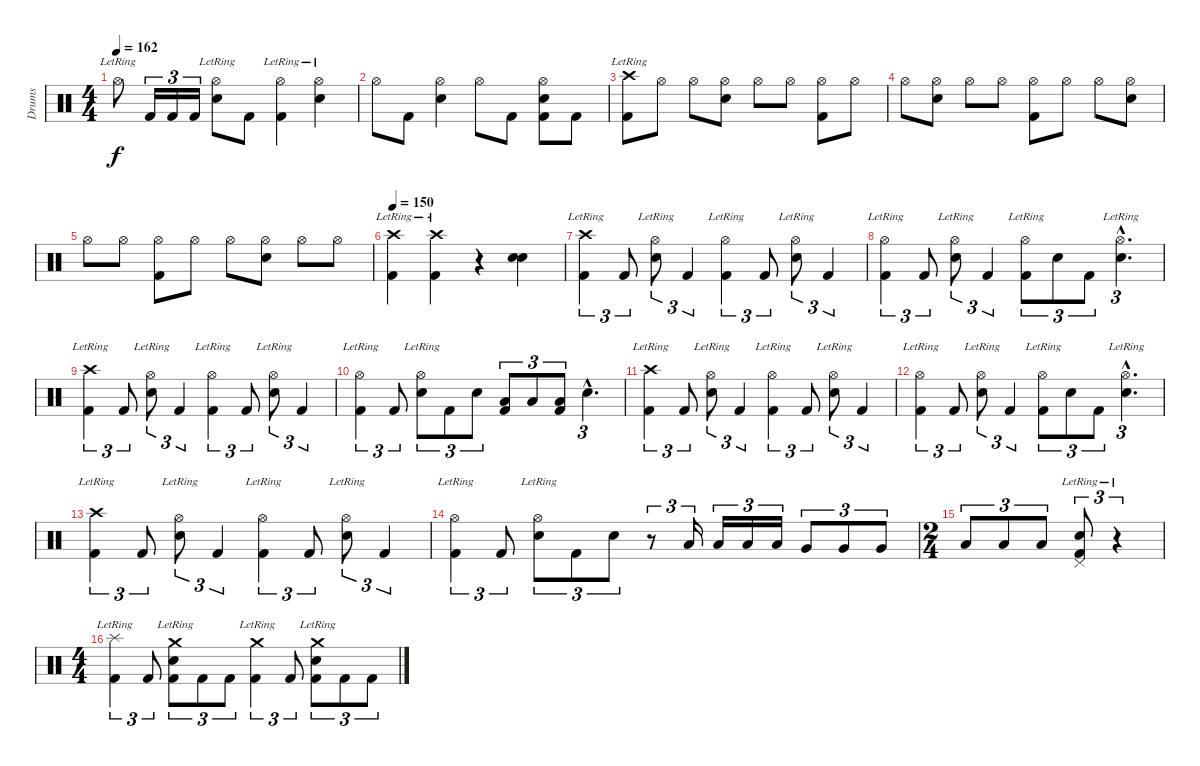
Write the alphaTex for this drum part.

\track ("Drums" "Drums") {instrument percussion}
\staff {score}
\articulation defaults
\ts (4 4)
\tempo 162
\clef neutral
\ks c "Hi-Hat (open)"{lr}.8{dy f} "Kick (hit) 2".16{tu (3 2)} "Kick (hit) 2".16{tu (3 2)} "Kick (hit) 2".16{tu (3 2)}
("Hi-Hat (open)"{lr} "Snare (hit) 2").8 "Kick (hit) 2".8 ("Hi-Hat (open)"{lr} "Kick (hit) 2").4 ("Hi-Hat (open)"{lr} "Snare (hit) 2").4 |
"Hi-Hat (open)".8 "Kick (hit) 2".8 ("Hi-Hat (open)" "Snare (hit) 2").4 "Hi-Hat (open)".8 "Kick (hit) 2".8 ("Hi-Hat (open)" "Snare (hit) 2" "Kick (hit) 2").8 "Kick (hit) 2".8 |
("Crash high (hit)"{lr} "Kick (hit) 2").8 "Hi-Hat (open)".8 "Hi-Hat (open)".8 ("Hi-Hat (open)" "Snare (hit) 2").8 "Hi-Hat (open)".8 "Hi-Hat (open)".8 ("Hi-Hat (open)" "Kick (hit) 2").8 "Hi-Hat (open)".8 |
"Hi-Hat (open)".8 ("Hi-Hat (open)" "Snare (hit) 2").8 "Hi-Hat (open)".8 "Hi-Hat (open)".8 ("Hi-Hat (open)" "Kick (hit) 2").8 "Hi-Hat (open)".8 "Hi-Hat (open)".8 ("Hi-Hat (open)" "Snare (hit) 2").8 |
"Hi-Hat (open)".8 "Hi-Hat (open)".8 ("Hi-Hat (open)" "Kick (hit) 2").8 "Hi-Hat (open)".8 "Hi-Hat (open)".8 ("Hi-Hat (open)" "Snare (hit) 2").8 "Hi-Hat (open)".8 "Hi-Hat (open)".8 |
\tempo 150
("Crash high (hit)"{lr} "Kick (hit) 2").4 ("Crash high (hit)"{lr} "Kick (hit) 2").4 r.4 ("Snare (hit) 2" "Snare (hit) 2").4 |
("Crash high (hit)"{lr} "Kick (hit) 2").4{tu (3 2)} "Kick (hit) 2".8{tu (3 2)} ("Hi-Hat (open)"{lr} "Snare (hit) 2").8{tu (3 2)} "Kick (hit) 2".4{tu (3 2)} ("Hi-Hat (open)"{lr} "Kick (hit) 2").4{tu (3 2)} "Kick (hit) 2".8{tu (3 2)} ("Hi-Hat (open)"{lr} "Snare (hit) 2").8{tu (3 2)} "Kick (hit) 2".4{tu (3 2)} |
("Hi-Hat (open)"{lr} "Kick (hit) 2").4{tu (3 2)} "Kick (hit) 2".8{tu (3 2)} ("Hi-Hat (open)"{lr} "Snare (hit) 2").8{tu (3 2)} "Kick (hit) 2".4{tu (3 2)} ("Hi-Hat (open)"{lr} "Kick (hit) 2").8{tu (3 2)} "Snare (hit) 2".8{tu (3 2)} "Kick (hit) 2".8{tu (3 2)} ("Hi-Hat (open)"{hac lr} "Snare (hit) 2"{hac}).4{d tu (3 2)} |
("Crash high (hit)"{lr} "Kick (hit) 2").4{tu (3 2)} "Kick (hit) 2".8{tu (3 2)} ("Hi-Hat (open)"{lr} "Snare (hit) 2").8{tu (3 2)} "Kick (hit) 2".4{tu (3 2)} ("Hi-Hat (open)"{lr} "Kick (hit) 2").4{tu (3 2)} "Kick (hit) 2".8{tu (3 2)} ("Hi-Hat (open)"{lr} "Snare (hit) 2").8{tu (3 2)} "Kick (hit) 2".4{tu (3 2)} |
("Hi-Hat (open)"{lr} "Kick (hit) 2").4{tu (3 2)} "Kick (hit) 2".8{tu (3 2)} ("Hi-Hat (open)"{lr} "Snare (hit) 2").8{tu (3 2)} "Kick (hit) 2".8{tu (3 2)} "Snare (hit) 2".8{tu (3 2)} ("Low Tom (hit)" "Kick (hit) 2").8{tu (3 2)} "Low Tom (hit)".8{tu (3 2)} ("Low Tom (hit)" "Kick (hit) 2").8{tu (3 2)} "Snare (hit) 2"{hac}.4{d tu (3 2)} |
("Crash high (hit)"{lr} "Kick (hit) 2").4{tu (3 2)} "Kick (hit) 2".8{tu (3 2)} ("Hi-Hat (open)"{lr} "Snare (hit) 2").8{tu (3 2)} "Kick (hit) 2".4{tu (3 2)} ("Hi-Hat (open)"{lr} "Kick (hit) 2").4{tu (3 2)} "Kick (hit) 2".8{tu (3 2)} ("Hi-Hat (open)"{lr} "Snare (hit) 2").8{tu (3 2)} "Kick (hit) 2".4{tu (3 2)} |
("Hi-Hat (open)"{lr} "Kick (hit) 2").4{tu (3 2)} "Kick (hit) 2".8{tu (3 2)} ("Hi-Hat (open)"{lr} "Snare (hit) 2").8{tu (3 2)} "Kick (hit) 2".4{tu (3 2)} ("Hi-Hat (open)"{lr} "Kick (hit) 2").8{tu (3 2)} "Snare (hit) 2".8{tu (3 2)} "Kick (hit) 2".8{tu (3 2)} ("Hi-Hat (open)"{hac lr} "Snare (hit) 2"{hac}).4{d tu (3 2)} |
("Crash high (hit)"{lr} "Kick (hit) 2").4{tu (3 2)} "Kick (hit) 2".8{tu (3 2)} ("Hi-Hat (open)"{lr} "Snare (hit) 2").8{tu (3 2)} "Kick (hit) 2".4{tu (3 2)} ("Hi-Hat (open)"{lr} "Kick (hit) 2").4{tu (3 2)} "Kick (hit) 2".8{tu (3 2)} ("Hi-Hat (open)"{lr} "Snare (hit) 2").8{tu (3 2)} "Kick (hit) 2".4{tu (3 2)} |
("Hi-Hat (open)"{lr} "Kick (hit) 2").4{tu (3 2)} "Kick (hit) 2".8{tu (3 2)} ("Hi-Hat (open)"{lr} "Snare (hit) 2").8{tu (3 2)} "Kick (hit) 2".8{tu (3 2)} "Snare (hit) 2".8{tu (3 2)} r.8{tu (3 2)} "Low Tom (hit)".16{tu (3 2)} "Low Tom (hit)".16{tu (3 2)} "Low Tom (hit)".16{tu (3 2)} "Low Tom (hit)".16{tu (3 2)} "Very Low Tom (hit)".8{tu (3 2)} "Very Low Tom (hit)".8{tu (3 2)} "Very Low Tom (hit)".8{tu (3 2)} |
\ts (2 4)
"Low Floor Tom (hit)".8{tu (3 2)} "Low Floor Tom (hit)".8{tu (3 2)} "Low Floor Tom (hit)".8{tu (3 2)} ("Pedal Hi-Hat (hit)"{lr} "Snare (hit) 2" "Kick (hit) 2").8{tu (3 2)} r.4{tu (3 2)} |
\ts (4 4)
("Splash (hit)"{lr} "Kick (hit) 2").4{tu (3 2)} "Kick (hit) 2".8{tu (3 2)} ("Crash medium (hit)"{lr} "Snare (hit) 2" "Kick (hit) 2").8{tu (3 2)} "Kick (hit) 2".8{tu (3 2)} "Kick (hit) 2".8{tu (3 2)} ("Crash medium (hit)"{lr} "Kick (hit) 2").4{tu (3 2)} "Kick (hit) 2".8{tu (3 2)} ("Crash medium (hit)"{lr} "Snare (hit) 2" "Kick (hit) 2").8{tu (3 2)} "Kick (hit) 2".8{tu (3 2)} "Kick (hit) 2".8{tu (3 2)}
